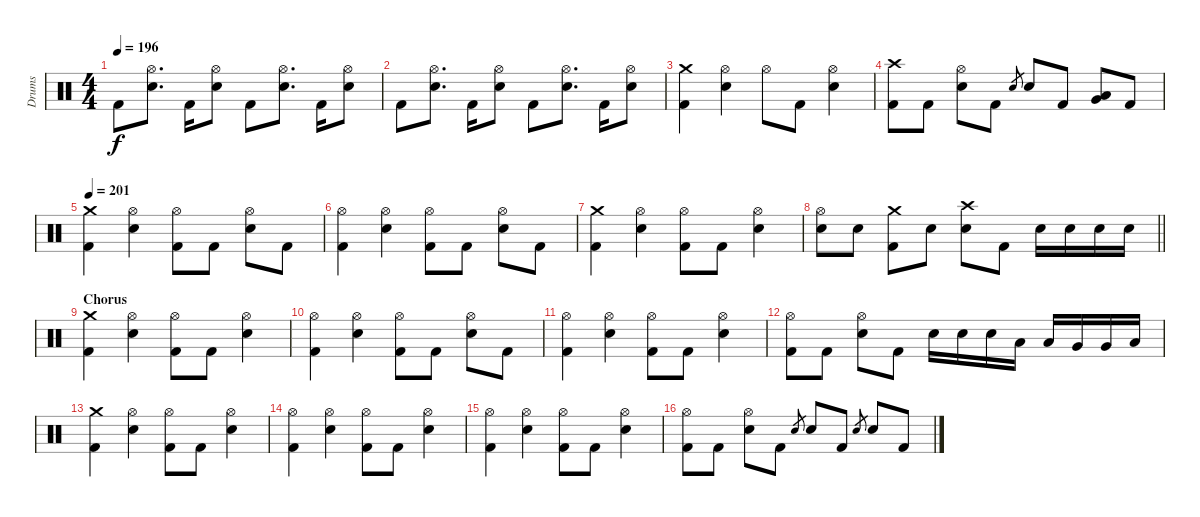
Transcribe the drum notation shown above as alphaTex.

\track ("Drums" "Drums") {instrument percussion}
\staff {score}
\articulation defaults
\ts (4 4)
\tempo 196
\clef neutral
\ks c "Kick (hit) 2".8{dy f}
("Hi-Hat (open)" "Electric Snare (hit)").8{d} "Kick (hit) 2".16 ("Hi-Hat (open)" "Electric Snare (hit)").8 "Kick (hit) 2".8 ("Hi-Hat (open)" "Electric Snare (hit)").8{d} "Kick (hit) 2".16 ("Hi-Hat (open)" "Electric Snare (hit)").8 |
"Kick (hit) 2".8 ("Hi-Hat (open)" "Electric Snare (hit)").8{d} "Kick (hit) 2".16 ("Hi-Hat (open)" "Electric Snare (hit)").8 "Kick (hit) 2".8 ("Hi-Hat (open)" "Electric Snare (hit)").8{d} "Kick (hit) 2".16 ("Hi-Hat (open)" "Electric Snare (hit)").8 |
("Crash medium (hit)" "Kick (hit) 2").4 ("Hi-Hat (open)" "Electric Snare (hit)").4 "Hi-Hat (open)".8 "Kick (hit) 2".8 ("Hi-Hat (open)" "Electric Snare (hit)").4 |
("Crash high (hit)" "Kick (hit) 2").8 "Kick (hit) 2".8 ("Hi-Hat (open)" "Electric Snare (hit)").8 "Kick (hit) 2".8 "Electric Snare (hit)".8{gr} "Electric Snare (hit)".8 "Kick (hit) 2".8 ("Low Tom (hit)" "Very Low Tom (hit)").8 "Kick (hit) 2".8 |
\tempo 201
("Crash medium (hit)" "Kick (hit) 2").4 ("Hi-Hat (open)" "Electric Snare (hit)").4 ("Hi-Hat (open)" "Kick (hit) 2").8 "Kick (hit) 2".8 ("Hi-Hat (open)" "Electric Snare (hit)").8 "Kick (hit) 2".8 |
("Hi-Hat (open)" "Kick (hit) 2").4 ("Hi-Hat (open)" "Electric Snare (hit)").4 ("Hi-Hat (open)" "Kick (hit) 2").8 "Kick (hit) 2".8 ("Hi-Hat (open)" "Electric Snare (hit)").8 "Kick (hit) 2".8 |
("Crash medium (hit)" "Kick (hit) 2").4 ("Hi-Hat (open)" "Electric Snare (hit)").4 ("Hi-Hat (open)" "Kick (hit) 2").8 "Kick (hit) 2".8 ("Hi-Hat (open)" "Electric Snare (hit)").4 |
\barLineRight lightlight
("Hi-Hat (open)" "Electric Snare (hit)").8 "Electric Snare (hit)".8 ("Crash medium (hit)" "Kick (hit) 2").8 "Electric Snare (hit)".8 ("Crash high (hit)" "Electric Snare (hit)").8 "Kick (hit) 2".8 "Electric Snare (hit)".16 "Electric Snare (hit)".16 "Electric Snare (hit)".16 "Electric Snare (hit)".16 |
\section ("" "Chorus")
("Crash medium (hit)" "Kick (hit) 2").4 ("Hi-Hat (open)" "Electric Snare (hit)").4 ("Hi-Hat (open)" "Kick (hit) 2").8 "Kick (hit) 2".8 ("Hi-Hat (open)" "Electric Snare (hit)").4 |
("Hi-Hat (open)" "Kick (hit) 2").4 ("Hi-Hat (open)" "Electric Snare (hit)").4 ("Hi-Hat (open)" "Kick (hit) 2").8 "Kick (hit) 2".8 ("Hi-Hat (open)" "Electric Snare (hit)").8 "Kick (hit) 2".8 |
("Hi-Hat (open)" "Kick (hit) 2").4 ("Hi-Hat (open)" "Electric Snare (hit)").4 ("Hi-Hat (open)" "Kick (hit) 2").8 "Kick (hit) 2".8 ("Hi-Hat (open)" "Electric Snare (hit)").4 |
("Hi-Hat (open)" "Kick (hit) 2").8 "Kick (hit) 2".8 ("Hi-Hat (open)" "Electric Snare (hit)").8 "Kick (hit) 2".8 "Electric Snare (hit)".16 "Electric Snare (hit)".16 "Electric Snare (hit)".16 "Low Tom (hit)".16 "Low Tom (hit)".16 "Very Low Tom (hit)".16 "Very Low Tom (hit)".16 "Low Floor Tom (hit)".16 |
("Crash medium (hit)" "Kick (hit) 2").4 ("Hi-Hat (open)" "Electric Snare (hit)").4 ("Hi-Hat (open)" "Kick (hit) 2").8 "Kick (hit) 2".8 ("Hi-Hat (open)" "Electric Snare (hit)").4 |
("Hi-Hat (open)" "Kick (hit) 2").4 ("Hi-Hat (open)" "Electric Snare (hit)").4 ("Hi-Hat (open)" "Kick (hit) 2").8 "Kick (hit) 2".8 ("Hi-Hat (open)" "Electric Snare (hit)").4 |
("Hi-Hat (open)" "Kick (hit) 2").4 ("Hi-Hat (open)" "Electric Snare (hit)").4 ("Hi-Hat (open)" "Kick (hit) 2").8 "Kick (hit) 2".8 ("Hi-Hat (open)" "Electric Snare (hit)").4 |
("Hi-Hat (open)" "Kick (hit) 2").8 "Kick (hit) 2".8 ("Hi-Hat (open)" "Electric Snare (hit)").8 "Kick (hit) 2".8 "Electric Snare (hit)".8{gr} "Electric Snare (hit)".8 "Kick (hit) 2".8 "Electric Snare (hit)".8{gr} "Electric Snare (hit)".8 "Kick (hit) 2".8
